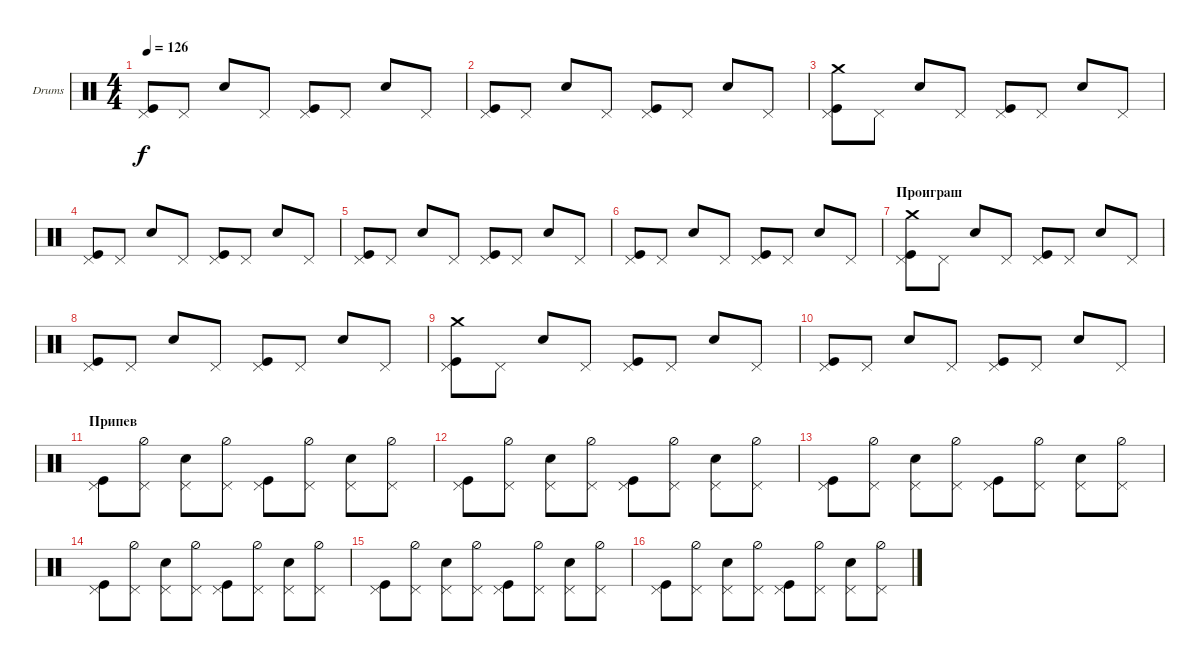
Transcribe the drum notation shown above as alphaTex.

\defaultSystemsLayout 4
\bracketExtendMode groupsimilarinstruments
\firstSystemTrackNameOrientation horizontal
\otherSystemsTrackNameOrientation horizontal
\track ("Е. Кулаков" "Drums") {instrument percussion}
\staff {score}
\articulation defaults
\ts (4 4)
\tempo 126
\clef neutral
\ks c
("Kick (hit)" "Pedal Hi-Hat (hit)").8{dy f} "Pedal Hi-Hat (hit)".8 "Snare (hit) 2".8 "Pedal Hi-Hat (hit)".8 ("Kick (hit)" "Pedal Hi-Hat (hit)").8 "Pedal Hi-Hat (hit)".8 "Snare (hit) 2".8 "Pedal Hi-Hat (hit)".8 |
("Kick (hit)" "Pedal Hi-Hat (hit)").8 "Pedal Hi-Hat (hit)".8 "Snare (hit) 2".8 "Pedal Hi-Hat (hit)".8 ("Kick (hit)" "Pedal Hi-Hat (hit)").8 "Pedal Hi-Hat (hit)".8 "Snare (hit) 2".8 "Pedal Hi-Hat (hit)".8 |
("Kick (hit)" "Pedal Hi-Hat (hit)" "Crash medium (hit)").8 "Pedal Hi-Hat (hit)".8 "Snare (hit) 2".8 "Pedal Hi-Hat (hit)".8 ("Kick (hit)" "Pedal Hi-Hat (hit)").8 "Pedal Hi-Hat (hit)".8 "Snare (hit) 2".8 "Pedal Hi-Hat (hit)".8 |
("Kick (hit)" "Pedal Hi-Hat (hit)").8 "Pedal Hi-Hat (hit)".8 "Snare (hit) 2".8 "Pedal Hi-Hat (hit)".8 ("Kick (hit)" "Pedal Hi-Hat (hit)").8 "Pedal Hi-Hat (hit)".8 "Snare (hit) 2".8 "Pedal Hi-Hat (hit)".8 |
("Kick (hit)" "Pedal Hi-Hat (hit)").8 "Pedal Hi-Hat (hit)".8 "Snare (hit) 2".8 "Pedal Hi-Hat (hit)".8 ("Kick (hit)" "Pedal Hi-Hat (hit)").8 "Pedal Hi-Hat (hit)".8 "Snare (hit) 2".8 "Pedal Hi-Hat (hit)".8 |
("Kick (hit)" "Pedal Hi-Hat (hit)").8 "Pedal Hi-Hat (hit)".8 "Snare (hit) 2".8 "Pedal Hi-Hat (hit)".8 ("Kick (hit)" "Pedal Hi-Hat (hit)").8 "Pedal Hi-Hat (hit)".8 "Snare (hit) 2".8 "Pedal Hi-Hat (hit)".8 |
\section ("" "Проиграш")
("Kick (hit)" "Pedal Hi-Hat (hit)" "Crash medium (hit)").8 "Pedal Hi-Hat (hit)".8 "Snare (hit) 2".8 "Pedal Hi-Hat (hit)".8 ("Kick (hit)" "Pedal Hi-Hat (hit)").8 "Pedal Hi-Hat (hit)".8 "Snare (hit) 2".8 "Pedal Hi-Hat (hit)".8 |
("Kick (hit)" "Pedal Hi-Hat (hit)").8 "Pedal Hi-Hat (hit)".8 "Snare (hit) 2".8 "Pedal Hi-Hat (hit)".8 ("Kick (hit)" "Pedal Hi-Hat (hit)").8 "Pedal Hi-Hat (hit)".8 "Snare (hit) 2".8 "Pedal Hi-Hat (hit)".8 |
("Kick (hit)" "Pedal Hi-Hat (hit)" "Crash medium (hit)").8 "Pedal Hi-Hat (hit)".8 "Snare (hit) 2".8 "Pedal Hi-Hat (hit)".8 ("Kick (hit)" "Pedal Hi-Hat (hit)").8 "Pedal Hi-Hat (hit)".8 "Snare (hit) 2".8 "Pedal Hi-Hat (hit)".8 |
("Kick (hit)" "Pedal Hi-Hat (hit)").8 "Pedal Hi-Hat (hit)".8 "Snare (hit) 2".8 "Pedal Hi-Hat (hit)".8 ("Kick (hit)" "Pedal Hi-Hat (hit)").8 "Pedal Hi-Hat (hit)".8 "Snare (hit) 2".8 "Pedal Hi-Hat (hit)".8 |
\section ("" "Припев")
("Kick (hit)" "Pedal Hi-Hat (hit)").8 ("Hi-Hat (half)" "Pedal Hi-Hat (hit)").8 ("Pedal Hi-Hat (hit)" "Snare (hit) 2").8 ("Hi-Hat (half)" "Pedal Hi-Hat (hit)").8 ("Kick (hit)" "Pedal Hi-Hat (hit)").8 ("Hi-Hat (half)" "Pedal Hi-Hat (hit)").8 ("Pedal Hi-Hat (hit)" "Snare (hit) 2").8 ("Hi-Hat (half)" "Pedal Hi-Hat (hit)").8 |
("Kick (hit)" "Pedal Hi-Hat (hit)").8 ("Hi-Hat (half)" "Pedal Hi-Hat (hit)").8 ("Pedal Hi-Hat (hit)" "Snare (hit) 2").8 ("Hi-Hat (half)" "Pedal Hi-Hat (hit)").8 ("Kick (hit)" "Pedal Hi-Hat (hit)").8 ("Hi-Hat (half)" "Pedal Hi-Hat (hit)").8 ("Pedal Hi-Hat (hit)" "Snare (hit) 2").8 ("Hi-Hat (half)" "Pedal Hi-Hat (hit)").8 |
("Kick (hit)" "Pedal Hi-Hat (hit)").8 ("Hi-Hat (half)" "Pedal Hi-Hat (hit)").8 ("Pedal Hi-Hat (hit)" "Snare (hit) 2").8 ("Hi-Hat (half)" "Pedal Hi-Hat (hit)").8 ("Kick (hit)" "Pedal Hi-Hat (hit)").8 ("Hi-Hat (half)" "Pedal Hi-Hat (hit)").8 ("Pedal Hi-Hat (hit)" "Snare (hit) 2").8 ("Hi-Hat (half)" "Pedal Hi-Hat (hit)").8 |
("Kick (hit)" "Pedal Hi-Hat (hit)").8 ("Hi-Hat (half)" "Pedal Hi-Hat (hit)").8 ("Pedal Hi-Hat (hit)" "Snare (hit) 2").8 ("Hi-Hat (half)" "Pedal Hi-Hat (hit)").8 ("Kick (hit)" "Pedal Hi-Hat (hit)").8 ("Hi-Hat (half)" "Pedal Hi-Hat (hit)").8 ("Pedal Hi-Hat (hit)" "Snare (hit) 2").8 ("Hi-Hat (half)" "Pedal Hi-Hat (hit)").8 |
("Kick (hit)" "Pedal Hi-Hat (hit)").8 ("Hi-Hat (half)" "Pedal Hi-Hat (hit)").8 ("Pedal Hi-Hat (hit)" "Snare (hit) 2").8 ("Hi-Hat (half)" "Pedal Hi-Hat (hit)").8 ("Kick (hit)" "Pedal Hi-Hat (hit)").8 ("Hi-Hat (half)" "Pedal Hi-Hat (hit)").8 ("Pedal Hi-Hat (hit)" "Snare (hit) 2").8 ("Hi-Hat (half)" "Pedal Hi-Hat (hit)").8 |
("Kick (hit)" "Pedal Hi-Hat (hit)").8 ("Hi-Hat (half)" "Pedal Hi-Hat (hit)").8 ("Pedal Hi-Hat (hit)" "Snare (hit) 2").8 ("Hi-Hat (half)" "Pedal Hi-Hat (hit)").8 ("Kick (hit)" "Pedal Hi-Hat (hit)").8 ("Hi-Hat (half)" "Pedal Hi-Hat (hit)").8 ("Pedal Hi-Hat (hit)" "Snare (hit) 2").8 ("Hi-Hat (half)" "Pedal Hi-Hat (hit)").8
